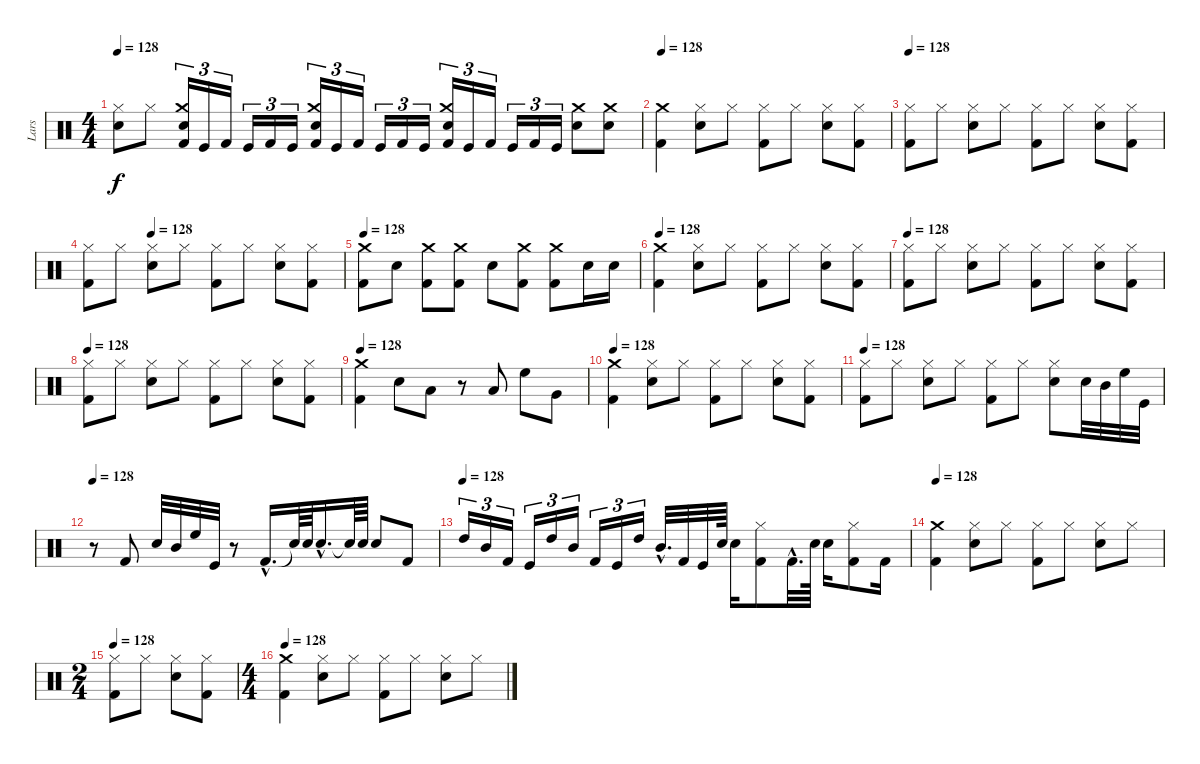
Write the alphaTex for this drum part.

\track ("Lars" "Lars") {instrument percussion}
\staff {score}
\articulation defaults
\ts (4 4)
\tempo 128
\clef neutral
\ks c
("Snare (hit) 2" "Hi-Hat (closed)").8{dy f} "Hi-Hat (closed)".8 ("Snare (hit) 2" "Crash medium (hit)" "Kick (hit) 2").16{tu (3 2)} "Kick (hit)".16{tu (3 2)} "Kick (hit) 2".16{tu (3 2)} "Kick (hit)".16{tu (3 2)} "Kick (hit) 2".16{tu (3 2)} "Kick (hit)".16{tu (3 2)} ("Crash medium (hit)" "Snare (hit) 2" "Kick (hit) 2").16{tu (3 2)} "Kick (hit)".16{tu (3 2)} "Kick (hit) 2".16{tu (3 2)} "Kick (hit)".16{tu (3 2)} "Kick (hit) 2".16{tu (3 2)} "Kick (hit)".16{tu (3 2)} ("Crash medium (hit)" "Snare (hit) 2" "Kick (hit) 2").16{tu (3 2)} "Kick (hit)".16{tu (3 2)} "Kick (hit) 2".16{tu (3 2)} "Kick (hit)".16{tu (3 2)} "Kick (hit) 2".16{tu (3 2)} "Kick (hit)".16{tu (3 2)} ("Crash medium (hit)" "Snare (hit) 2").8 ("Crash medium (hit)" "Snare (hit) 2").8 |
\tempo 128
("Kick (hit) 2" "Crash medium (hit)").4 ("Snare (hit) 2" "Hi-Hat (closed)").8 "Hi-Hat (closed)".8 ("Hi-Hat (closed)" "Kick (hit) 2").8 "Hi-Hat (closed)".8 ("Snare (hit) 2" "Hi-Hat (closed)").8 ("Kick (hit) 2" "Hi-Hat (closed)").8 |
\tempo 128
("Hi-Hat (closed)" "Kick (hit) 2").8 "Hi-Hat (closed)".8 ("Snare (hit) 2" "Hi-Hat (closed)").8 "Hi-Hat (closed)".8 ("Hi-Hat (closed)" "Kick (hit) 2").8 "Hi-Hat (closed)".8 ("Snare (hit) 2" "Hi-Hat (closed)").8 ("Kick (hit) 2" "Hi-Hat (closed)").8 |
\tempo (128 0.25)
("Hi-Hat (closed)" "Kick (hit) 2").8 "Hi-Hat (closed)".8 ("Snare (hit) 2" "Hi-Hat (closed)").8 "Hi-Hat (closed)".8 ("Hi-Hat (closed)" "Kick (hit) 2").8 "Hi-Hat (closed)".8 ("Snare (hit) 2" "Hi-Hat (closed)").8 ("Kick (hit) 2" "Hi-Hat (closed)").8 |
\tempo 128
("Crash medium (hit)" "Kick (hit) 2").8 "Snare (hit) 2".8 ("Kick (hit) 2" "Crash medium (hit)").8 ("Kick (hit) 2" "Crash medium (hit)").8 "Snare (hit) 2".8 ("Crash medium (hit)" "Kick (hit) 2").8 ("Crash medium (hit)" "Kick (hit) 2").8 "Snare (hit) 2".16 "Snare (hit) 2".16 |
\tempo 128
("Kick (hit) 2" "Crash medium (hit)").4 ("Snare (hit) 2" "Hi-Hat (closed)").8 "Hi-Hat (closed)".8 ("Hi-Hat (closed)" "Kick (hit) 2").8 "Hi-Hat (closed)".8 ("Snare (hit) 2" "Hi-Hat (closed)").8 ("Kick (hit) 2" "Hi-Hat (closed)").8 |
\tempo 128
("Hi-Hat (closed)" "Kick (hit) 2").8 "Hi-Hat (closed)".8 ("Snare (hit) 2" "Hi-Hat (closed)").8 "Hi-Hat (closed)".8 ("Hi-Hat (closed)" "Kick (hit) 2").8 "Hi-Hat (closed)".8 ("Snare (hit) 2" "Hi-Hat (closed)").8 ("Kick (hit) 2" "Hi-Hat (closed)").8 |
\tempo 128
("Hi-Hat (closed)" "Kick (hit) 2").8 "Hi-Hat (closed)".8 ("Snare (hit) 2" "Hi-Hat (closed)").8 "Hi-Hat (closed)".8 ("Hi-Hat (closed)" "Kick (hit) 2").8 "Hi-Hat (closed)".8 ("Snare (hit) 2" "Hi-Hat (closed)").8 ("Kick (hit) 2" "Hi-Hat (closed)").8 |
\tempo 128
("Kick (hit) 2" "Crash medium (hit)").4 "Snare (hit) 2".8 "Low Tom (hit)".8 r.8 "Low Tom (hit)".8 "High Floor Tom (hit)".8 "Very Low Tom (hit)".8 |
\tempo 128
("Kick (hit) 2" "Crash medium (hit)").4 ("Snare (hit) 2" "Hi-Hat (closed)").8 "Hi-Hat (closed)".8 ("Hi-Hat (closed)" "Kick (hit) 2").8 "Hi-Hat (closed)".8 ("Snare (hit) 2" "Hi-Hat (closed)").8 ("Kick (hit) 2" "Hi-Hat (closed)").8 |
\tempo 128
("Hi-Hat (closed)" "Kick (hit) 2").8 "Hi-Hat (closed)".8 ("Snare (hit) 2" "Hi-Hat (closed)").8 "Hi-Hat (closed)".8 ("Hi-Hat (closed)" "Kick (hit) 2").8 "Hi-Hat (closed)".8 ("Snare (hit) 2" "Hi-Hat (closed)").8 "Snare (hit) 2".32 "Mid Tom (hit)".32 "High Floor Tom (hit)".32 "Kick (hit)".32 |
\tempo 128
r.8 "Kick (hit) 2".8 "Snare (hit) 2".32 "Mid Tom (hit)".32 "High Floor Tom (hit)".32 "Kick (hit)".32 r.8 "Kick (hit) 2"{hac}.16{d} "Snare (hit)"{t}.64 "Snare (hit) 2".64 "Snare (hit) 2"{hac}.16{d} "Snare (hit)"{t}.64 "Snare (hit) 2".64 "Snare (hit) 2".8 "Kick (hit) 2".8 |
\tempo (128)
"High Tom (hit)".16{tu (3 2)} "Mid Tom (hit)".16{tu (3 2)} "Kick (hit) 2".16{tu (3 2)} "Kick (hit)".16{tu (3 2)} "High Tom (hit)".16{tu (3 2)} "Mid Tom (hit)".16{tu (3 2)} "Kick (hit) 2".16{tu (3 2)} "Kick (hit)".16{tu (3 2)} "High Tom (hit)".16{tu (3 2)} "Mid Tom (hit)"{hac}.32{d} "Kick (hit) 2".32 "Kick (hit)".32 "Snare (hit) 2".64 "Snare (hit) 2".16 ("Hi-Hat (closed)" "Kick (hit) 2").8 "Kick (hit) 2"{hac}.32{d} "Snare (hit) 2".64 "Snare (hit) 2".16 ("Hi-Hat (closed)" "Kick (hit) 2").8 "Kick (hit) 2".16 |
\tempo 128
("Kick (hit) 2" "Crash medium (hit)").4 ("Hi-Hat (closed)" "Snare (hit) 2").8 "Hi-Hat (closed)".8 ("Hi-Hat (closed)" "Kick (hit) 2").8 "Hi-Hat (closed)".8 ("Snare (hit) 2" "Hi-Hat (closed)").8 "Hi-Hat (closed)".8 |
\ts (2 4)
\tempo 128
("Kick (hit) 2" "Hi-Hat (closed)").8 "Hi-Hat (closed)".8 ("Snare (hit) 2" "Hi-Hat (closed)").8 ("Kick (hit) 2" "Hi-Hat (closed)").8 |
\ts (4 4)
\tempo 128
("Kick (hit) 2" "Crash medium (hit)").4 ("Hi-Hat (closed)" "Snare (hit) 2").8 "Hi-Hat (closed)".8 ("Hi-Hat (closed)" "Kick (hit) 2").8 "Hi-Hat (closed)".8 ("Snare (hit) 2" "Hi-Hat (closed)").8 "Hi-Hat (closed)".8
